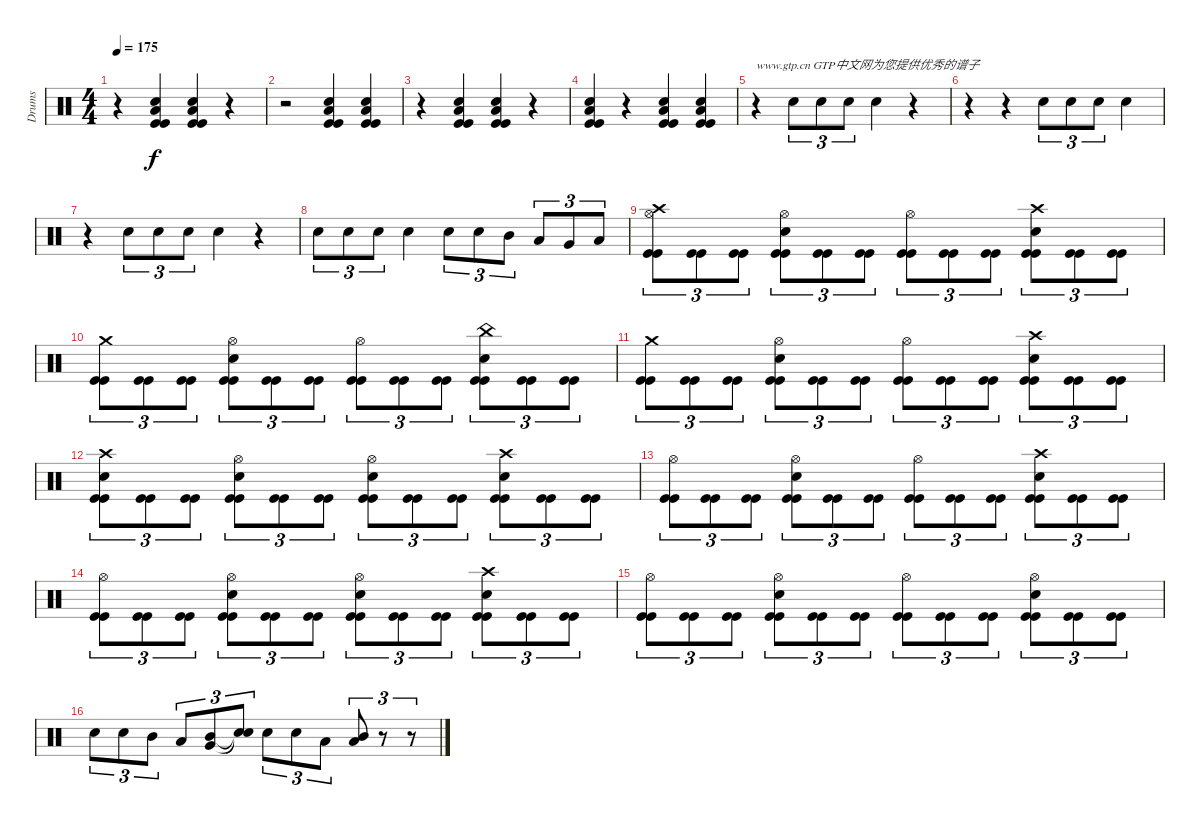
\track ("Drums" "Drums") {instrument percussion}
\staff {score}
\articulation defaults
\ts (4 4)
\tempo 175
\clef neutral
\ks c
r.4{dy f} ("Kick (hit)" "Kick (hit)" "Low Tom (hit)" "Snare (hit) 2").4 ("Kick (hit)" "Kick (hit)" "Low Tom (hit)" "Snare (hit) 2").4 r.4 |
r.2 ("Kick (hit)" "Kick (hit)" "Low Tom (hit)" "Snare (hit) 2").4 ("Kick (hit)" "Kick (hit)" "Low Tom (hit)" "Snare (hit) 2").4 |
r.4 ("Kick (hit)" "Kick (hit)" "Low Tom (hit)" "Snare (hit) 2").4 ("Kick (hit)" "Kick (hit)" "Low Tom (hit)" "Snare (hit) 2").4 r.4 |
("Kick (hit)" "Kick (hit)" "Low Tom (hit)" "Snare (hit) 2").4 r.4 ("Kick (hit)" "Kick (hit)" "Low Tom (hit)" "Snare (hit) 2").4 ("Kick (hit)" "Kick (hit)" "Low Tom (hit)" "Snare (hit) 2").4 |
r.4{txt "www.gtp.cn GTP中文网为您提供优秀的谱子"} "Snare (hit) 2".8{tu (3 2)} "Snare (hit) 2".8{tu (3 2)} "Snare (hit) 2".8{tu (3 2)} "Snare (hit) 2".4 r.4 |
r.4 r.4 "Snare (hit) 2".8{tu (3 2)} "Snare (hit) 2".8{tu (3 2)} "Snare (hit) 2".8{tu (3 2)} "Snare (hit) 2".4 |
r.4 "Snare (hit) 2".8{tu (3 2)} "Snare (hit) 2".8{tu (3 2)} "Snare (hit) 2".8{tu (3 2)} "Snare (hit) 2".4 r.4 |
"Snare (hit) 2".8{tu (3 2)} "Snare (hit) 2".8{tu (3 2)} "Snare (hit) 2".8{tu (3 2)} "Snare (hit) 2".4 "Snare (hit) 2".8{tu (3 2)} "Snare (hit) 2".8{tu (3 2)} "Mid Tom (hit)".8{tu (3 2)} "Low Tom (hit)".8{tu (3 2)} "Very Low Tom (hit)".8{tu (3 2)} "Low Floor Tom (hit)".8{tu (3 2)} |
("Kick (hit)" "Kick (hit)" "Hi-Hat (open)" "Crash high (hit)").8{tu (3 2)} ("Kick (hit)" "Kick (hit)").8{tu (3 2)} ("Kick (hit)" "Kick (hit)").8{tu (3 2)} ("Kick (hit)" "Kick (hit)" "Snare (hit) 2" "Hi-Hat (open)").8{tu (3 2)} ("Kick (hit)" "Kick (hit)").8{tu (3 2)} ("Kick (hit)" "Kick (hit)").8{tu (3 2)} ("Kick (hit)" "Kick (hit)" "Hi-Hat (open)").8{tu (3 2)} ("Kick (hit)" "Kick (hit)").8{tu (3 2)} ("Kick (hit)" "Kick (hit)").8{tu (3 2)} ("Kick (hit)" "Kick (hit)" "Snare (hit) 2" "Crash high (hit)").8{tu (3 2)} ("Kick (hit)" "Kick (hit)").8{tu (3 2)} ("Kick (hit)" "Kick (hit)").8{tu (3 2)} |
("Kick (hit)" "Kick (hit)" "Crash medium (hit)").8{tu (3 2)} ("Kick (hit)" "Kick (hit)").8{tu (3 2)} ("Kick (hit)" "Kick (hit)").8{tu (3 2)} ("Kick (hit)" "Kick (hit)" "Snare (hit) 2" "Hi-Hat (open)").8{tu (3 2)} ("Kick (hit)" "Kick (hit)").8{tu (3 2)} ("Kick (hit)" "Kick (hit)").8{tu (3 2)} ("Kick (hit)" "Kick (hit)" "Hi-Hat (open)").8{tu (3 2)} ("Kick (hit)" "Kick (hit)").8{tu (3 2)} ("Kick (hit)" "Kick (hit)").8{tu (3 2)} ("Kick (hit)" "Kick (hit)" "Snare (hit) 2" "China (hit)").8{tu (3 2)} ("Kick (hit)" "Kick (hit)").8{tu (3 2)} ("Kick (hit)" "Kick (hit)").8{tu (3 2)} |
("Kick (hit)" "Kick (hit)" "Crash medium (hit)").8{tu (3 2)} ("Kick (hit)" "Kick (hit)").8{tu (3 2)} ("Kick (hit)" "Kick (hit)").8{tu (3 2)} ("Kick (hit)" "Kick (hit)" "Snare (hit) 2" "Hi-Hat (open)").8{tu (3 2)} ("Kick (hit)" "Kick (hit)").8{tu (3 2)} ("Kick (hit)" "Kick (hit)").8{tu (3 2)} ("Kick (hit)" "Kick (hit)" "Hi-Hat (open)").8{tu (3 2)} ("Kick (hit)" "Kick (hit)").8{tu (3 2)} ("Kick (hit)" "Kick (hit)").8{tu (3 2)} ("Kick (hit)" "Kick (hit)" "Snare (hit) 2" "Crash high (hit)").8{tu (3 2)} ("Kick (hit)" "Kick (hit)").8{tu (3 2)} ("Kick (hit)" "Kick (hit)").8{tu (3 2)} |
("Kick (hit)" "Kick (hit)" "Snare (hit) 2" "Crash high (hit)").8{tu (3 2)} ("Kick (hit)" "Kick (hit)").8{tu (3 2)} ("Kick (hit)" "Kick (hit)").8{tu (3 2)} ("Kick (hit)" "Kick (hit)" "Snare (hit) 2" "Hi-Hat (open)").8{tu (3 2)} ("Kick (hit)" "Kick (hit)").8{tu (3 2)} ("Kick (hit)" "Kick (hit)").8{tu (3 2)} ("Kick (hit)" "Kick (hit)" "Hi-Hat (open)" "Snare (hit) 2").8{tu (3 2)} ("Kick (hit)" "Kick (hit)").8{tu (3 2)} ("Kick (hit)" "Kick (hit)").8{tu (3 2)} ("Kick (hit)" "Kick (hit)" "Snare (hit) 2" "Crash high (hit)").8{tu (3 2)} ("Kick (hit)" "Kick (hit)").8{tu (3 2)} ("Kick (hit)" "Kick (hit)").8{tu (3 2)} |
("Kick (hit)" "Kick (hit)" "Hi-Hat (open)").8{tu (3 2)} ("Kick (hit)" "Kick (hit)").8{tu (3 2)} ("Kick (hit)" "Kick (hit)").8{tu (3 2)} ("Kick (hit)" "Kick (hit)" "Snare (hit) 2" "Hi-Hat (open)").8{tu (3 2)} ("Kick (hit)" "Kick (hit)").8{tu (3 2)} ("Kick (hit)" "Kick (hit)").8{tu (3 2)} ("Kick (hit)" "Kick (hit)" "Hi-Hat (open)").8{tu (3 2)} ("Kick (hit)" "Kick (hit)").8{tu (3 2)} ("Kick (hit)" "Kick (hit)").8{tu (3 2)} ("Kick (hit)" "Kick (hit)" "Snare (hit) 2" "Crash high (hit)").8{tu (3 2)} ("Kick (hit)" "Kick (hit)").8{tu (3 2)} ("Kick (hit)" "Kick (hit)").8{tu (3 2)} |
("Kick (hit)" "Kick (hit)" "Hi-Hat (open)").8{tu (3 2)} ("Kick (hit)" "Kick (hit)").8{tu (3 2)} ("Kick (hit)" "Kick (hit)").8{tu (3 2)} ("Kick (hit)" "Kick (hit)" "Snare (hit) 2" "Hi-Hat (open)").8{tu (3 2)} ("Kick (hit)" "Kick (hit)").8{tu (3 2)} ("Kick (hit)" "Kick (hit)").8{tu (3 2)} ("Kick (hit)" "Kick (hit)" "Snare (hit) 2" "Hi-Hat (open)").8{tu (3 2)} ("Kick (hit)" "Kick (hit)").8{tu (3 2)} ("Kick (hit)" "Kick (hit)").8{tu (3 2)} ("Kick (hit)" "Kick (hit)" "Snare (hit) 2" "Crash high (hit)").8{tu (3 2)} ("Kick (hit)" "Kick (hit)").8{tu (3 2)} ("Kick (hit)" "Kick (hit)").8{tu (3 2)} |
("Kick (hit)" "Kick (hit)" "Hi-Hat (open)").8{tu (3 2)} ("Kick (hit)" "Kick (hit)").8{tu (3 2)} ("Kick (hit)" "Kick (hit)").8{tu (3 2)} ("Kick (hit)" "Kick (hit)" "Snare (hit) 2" "Hi-Hat (open)").8{tu (3 2)} ("Kick (hit)" "Kick (hit)").8{tu (3 2)} ("Kick (hit)" "Kick (hit)").8{tu (3 2)} ("Kick (hit)" "Kick (hit)" "Hi-Hat (open)").8{tu (3 2)} ("Kick (hit)" "Kick (hit)").8{tu (3 2)} ("Kick (hit)" "Kick (hit)").8{tu (3 2)} ("Kick (hit)" "Kick (hit)" "Snare (hit) 2" "Hi-Hat (open)").8{tu (3 2)} ("Kick (hit)" "Kick (hit)").8{tu (3 2)} ("Kick (hit)" "Kick (hit)").8{tu (3 2)} |
"Snare (hit) 2".8{tu (3 2)} "Snare (hit) 2".8{tu (3 2)} "Mid Tom (hit)".8{tu (3 2)} "Low Tom (hit)".8{tu (3 2)} ("Very Low Tom (hit)" "Mid Tom (hit)").8{tu (3 2)} ("Snare (hit) 2"{t} "Snare (hit)"{t}).8{tu (3 2)} "Snare (hit) 2".8{tu (3 2)} "Snare (hit) 2".8{tu (3 2)} "Low Tom (hit)".8{tu (3 2)} ("Low Floor Tom (hit)" "Mid Tom (hit)").8{tu (3 2)} r.8{tu (3 2)} r.8{tu (3 2)}
